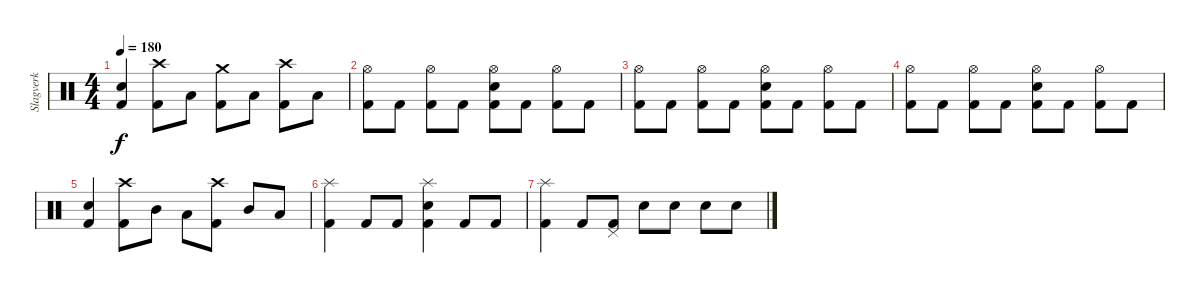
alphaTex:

\track ("Slagverk" "Slagverk") {instrument percussion}
\staff {score}
\articulation defaults
\ts (4 4)
\tempo 180
\clef neutral
\ks c
("Kick (hit) 2" "Snare (hit) 2").4{dy f} ("Kick (hit) 2" "Crash high (hit)").8 "Low Floor Tom (hit)".8 ("Kick (hit) 2" "Crash medium (hit)").8 "Low Floor Tom (hit)".8 ("Kick (hit) 2" "Crash high (hit)").8 "Low Floor Tom (hit)".8 |
("Kick (hit) 2" "Hi-Hat (open)").8 "Kick (hit) 2".8 ("Kick (hit) 2" "Hi-Hat (open)").8 "Kick (hit) 2".8 ("Kick (hit) 2" "Snare (hit) 2" "Hi-Hat (open)").8 "Kick (hit) 2".8 ("Kick (hit) 2" "Hi-Hat (open)").8 "Kick (hit) 2".8 |
("Kick (hit) 2" "Hi-Hat (open)").8 "Kick (hit) 2".8 ("Kick (hit) 2" "Hi-Hat (open)").8 "Kick (hit) 2".8 ("Kick (hit) 2" "Snare (hit) 2" "Hi-Hat (open)").8 "Kick (hit) 2".8 ("Kick (hit) 2" "Hi-Hat (open)").8 "Kick (hit) 2".8 |
("Kick (hit) 2" "Hi-Hat (open)").8 "Kick (hit) 2".8 ("Kick (hit) 2" "Hi-Hat (open)").8 "Kick (hit) 2".8 ("Kick (hit) 2" "Snare (hit) 2" "Hi-Hat (open)").8 "Kick (hit) 2".8 ("Kick (hit) 2" "Hi-Hat (open)").8 "Kick (hit) 2".8 |
("Kick (hit) 2" "Snare (hit) 2").4 ("Kick (hit) 2" "Crash high (hit)").8 "Mid Tom (hit)".8 "Low Tom (hit)".8 ("Kick (hit) 2" "Crash high (hit)").8 "Mid Tom (hit)".8 "Low Tom (hit)".8 |
("Kick (hit) 2" "Splash (hit)").4 "Kick (hit) 2".8 "Kick (hit) 2".8 ("Kick (hit) 2" "Snare (hit) 2" "Splash (hit)").4 "Kick (hit) 2".8 "Kick (hit) 2".8 |
("Kick (hit) 2" "Splash (hit)").4 "Kick (hit) 2".8 ("Kick (hit) 2" "Pedal Hi-Hat (hit)").8 "Snare (hit) 2".8 "Snare (hit) 2".8 "Snare (hit) 2".8 "Snare (hit) 2".8
